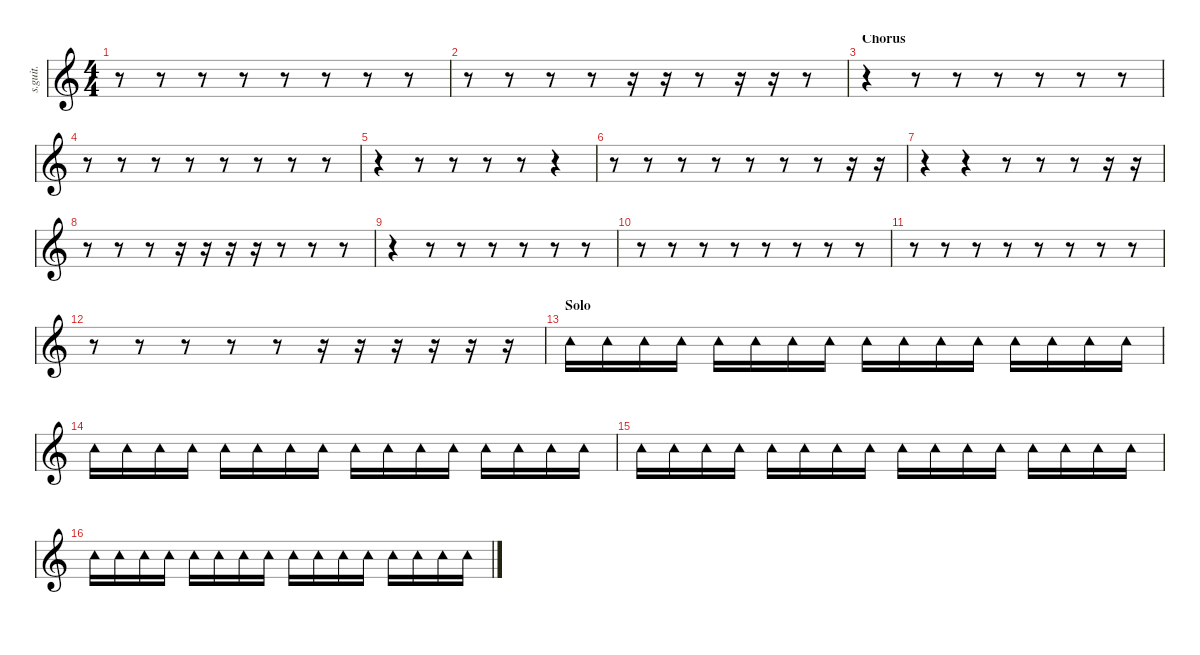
\defaultSystemsLayout 4
\hideDynamics
\bracketExtendMode nobrackets
\track ("Chad Channing - Tambourine" "s.guit.") {instrument percussion}
\staff {score}
\articulation defaults
\ts (4 4)
\tempo (126 hide)
\clef g2
\ks c
r.8{dy f} r.8 r.8 r.8 r.8 r.8 r.8 r.8 |
r.8 r.8 r.8 r.8 r.16 r.16 r.8 r.16 r.16 r.8 |
\section ("" "Chorus")
r.4 r.8 r.8 r.8 r.8 r.8 r.8 |
r.8 r.8 r.8 r.8 r.8 r.8 r.8 r.8 |
r.4 r.8 r.8 r.8 r.8 r.4 |
r.8 r.8 r.8 r.8 r.8 r.8 r.8 r.16 r.16 |
r.4 r.4 r.8 r.8 r.8 r.16 r.16 |
r.8 r.8 r.8 r.16 r.16 r.16 r.16 r.8 r.8 r.8 |
r.4 r.8 r.8 r.8 r.8 r.8 r.8 |
r.8 r.8 r.8 r.8 r.8 r.8 r.8 r.8 |
r.8 r.8 r.8 r.8 r.8 r.8 r.8 r.8 |
r.8 r.8 r.8 r.8 r.8 r.16 r.16 r.16 r.16 r.16 r.16 |
\section ("" "Solo")
\tempo (133 hide)
"Tambourine (hit)".16{lyrics (0 "") lyrics (1 "") lyrics (2 "") lyrics (3 "") lyrics (4 "")} "Tambourine (hit)".16{lyrics (0 "") lyrics (1 "") lyrics (2 "") lyrics (3 "") lyrics (4 "")} "Tambourine (hit)".16{lyrics (0 "") lyrics (1 "") lyrics (2 "") lyrics (3 "") lyrics (4 "")} "Tambourine (hit)".16{lyrics (0 "") lyrics (1 "") lyrics (2 "") lyrics (3 "") lyrics (4 "")} "Tambourine (hit)".16{lyrics (0 "") lyrics (1 "") lyrics (2 "") lyrics (3 "") lyrics (4 "")} "Tambourine (hit)".16{lyrics (0 "") lyrics (1 "") lyrics (2 "") lyrics (3 "") lyrics (4 "")} "Tambourine (hit)".16{lyrics (0 "") lyrics (1 "") lyrics (2 "") lyrics (3 "") lyrics (4 "")} "Tambourine (hit)".16{lyrics (0 "") lyrics (1 "") lyrics (2 "") lyrics (3 "") lyrics (4 "")} "Tambourine (hit)".16{lyrics (0 "") lyrics (1 "") lyrics (2 "") lyrics (3 "") lyrics (4 "")} "Tambourine (hit)".16{lyrics (0 "") lyrics (1 "") lyrics (2 "") lyrics (3 "") lyrics (4 "")} "Tambourine (hit)".16{lyrics (0 "") lyrics (1 "") lyrics (2 "") lyrics (3 "") lyrics (4 "")} "Tambourine (hit)".16{lyrics (0 "") lyrics (1 "") lyrics (2 "") lyrics (3 "") lyrics (4 "")} "Tambourine (hit)".16{lyrics (0 "") lyrics (1 "") lyrics (2 "") lyrics (3 "") lyrics (4 "")} "Tambourine (hit)".16{lyrics (0 "") lyrics (1 "") lyrics (2 "") lyrics (3 "") lyrics (4 "")} "Tambourine (hit)".16{lyrics (0 "") lyrics (1 "") lyrics (2 "") lyrics (3 "") lyrics (4 "")} "Tambourine (hit)".16{lyrics (0 "") lyrics (1 "") lyrics (2 "") lyrics (3 "") lyrics (4 "")} |
"Tambourine (hit)".16{lyrics (0 "") lyrics (1 "") lyrics (2 "") lyrics (3 "") lyrics (4 "")} "Tambourine (hit)".16{lyrics (0 "") lyrics (1 "") lyrics (2 "") lyrics (3 "") lyrics (4 "")} "Tambourine (hit)".16{lyrics (0 "") lyrics (1 "") lyrics (2 "") lyrics (3 "") lyrics (4 "")} "Tambourine (hit)".16{lyrics (0 "") lyrics (1 "") lyrics (2 "") lyrics (3 "") lyrics (4 "")} "Tambourine (hit)".16{lyrics (0 "") lyrics (1 "") lyrics (2 "") lyrics (3 "") lyrics (4 "")} "Tambourine (hit)".16{lyrics (0 "") lyrics (1 "") lyrics (2 "") lyrics (3 "") lyrics (4 "")} "Tambourine (hit)".16{lyrics (0 "") lyrics (1 "") lyrics (2 "") lyrics (3 "") lyrics (4 "")} "Tambourine (hit)".16{lyrics (0 "") lyrics (1 "") lyrics (2 "") lyrics (3 "") lyrics (4 "")} "Tambourine (hit)".16{lyrics (0 "") lyrics (1 "") lyrics (2 "") lyrics (3 "") lyrics (4 "")} "Tambourine (hit)".16{lyrics (0 "") lyrics (1 "") lyrics (2 "") lyrics (3 "") lyrics (4 "")} "Tambourine (hit)".16{lyrics (0 "") lyrics (1 "") lyrics (2 "") lyrics (3 "") lyrics (4 "")} "Tambourine (hit)".16{lyrics (0 "") lyrics (1 "") lyrics (2 "") lyrics (3 "") lyrics (4 "")} "Tambourine (hit)".16{lyrics (0 "") lyrics (1 "") lyrics (2 "") lyrics (3 "") lyrics (4 "")} "Tambourine (hit)".16{lyrics (0 "") lyrics (1 "") lyrics (2 "") lyrics (3 "") lyrics (4 "")} "Tambourine (hit)".16{lyrics (0 "") lyrics (1 "") lyrics (2 "") lyrics (3 "") lyrics (4 "")} "Tambourine (hit)".16{lyrics (0 "") lyrics (1 "") lyrics (2 "") lyrics (3 "") lyrics (4 "")} |
"Tambourine (hit)".16{lyrics (0 "") lyrics (1 "") lyrics (2 "") lyrics (3 "") lyrics (4 "")} "Tambourine (hit)".16{lyrics (0 "") lyrics (1 "") lyrics (2 "") lyrics (3 "") lyrics (4 "")} "Tambourine (hit)".16{lyrics (0 "") lyrics (1 "") lyrics (2 "") lyrics (3 "") lyrics (4 "")} "Tambourine (hit)".16{lyrics (0 "") lyrics (1 "") lyrics (2 "") lyrics (3 "") lyrics (4 "")} "Tambourine (hit)".16{lyrics (0 "") lyrics (1 "") lyrics (2 "") lyrics (3 "") lyrics (4 "")} "Tambourine (hit)".16{lyrics (0 "") lyrics (1 "") lyrics (2 "") lyrics (3 "") lyrics (4 "")} "Tambourine (hit)".16{lyrics (0 "") lyrics (1 "") lyrics (2 "") lyrics (3 "") lyrics (4 "")} "Tambourine (hit)".16{lyrics (0 "") lyrics (1 "") lyrics (2 "") lyrics (3 "") lyrics (4 "")} "Tambourine (hit)".16{lyrics (0 "") lyrics (1 "") lyrics (2 "") lyrics (3 "") lyrics (4 "")} "Tambourine (hit)".16{lyrics (0 "") lyrics (1 "") lyrics (2 "") lyrics (3 "") lyrics (4 "")} "Tambourine (hit)".16{lyrics (0 "") lyrics (1 "") lyrics (2 "") lyrics (3 "") lyrics (4 "")} "Tambourine (hit)".16{lyrics (0 "") lyrics (1 "") lyrics (2 "") lyrics (3 "") lyrics (4 "")} "Tambourine (hit)".16{lyrics (0 "") lyrics (1 "") lyrics (2 "") lyrics (3 "") lyrics (4 "")} "Tambourine (hit)".16{lyrics (0 "") lyrics (1 "") lyrics (2 "") lyrics (3 "") lyrics (4 "")} "Tambourine (hit)".16{lyrics (0 "") lyrics (1 "") lyrics (2 "") lyrics (3 "") lyrics (4 "")} "Tambourine (hit)".16{lyrics (0 "") lyrics (1 "") lyrics (2 "") lyrics (3 "") lyrics (4 "")} |
"Tambourine (hit)".16{lyrics (0 "") lyrics (1 "") lyrics (2 "") lyrics (3 "") lyrics (4 "")} "Tambourine (hit)".16{lyrics (0 "") lyrics (1 "") lyrics (2 "") lyrics (3 "") lyrics (4 "")} "Tambourine (hit)".16{lyrics (0 "") lyrics (1 "") lyrics (2 "") lyrics (3 "") lyrics (4 "")} "Tambourine (hit)".16{lyrics (0 "") lyrics (1 "") lyrics (2 "") lyrics (3 "") lyrics (4 "")} "Tambourine (hit)".16{lyrics (0 "") lyrics (1 "") lyrics (2 "") lyrics (3 "") lyrics (4 "")} "Tambourine (hit)".16{lyrics (0 "") lyrics (1 "") lyrics (2 "") lyrics (3 "") lyrics (4 "")} "Tambourine (hit)".16{lyrics (0 "") lyrics (1 "") lyrics (2 "") lyrics (3 "") lyrics (4 "")} "Tambourine (hit)".16{lyrics (0 "") lyrics (1 "") lyrics (2 "") lyrics (3 "") lyrics (4 "")} "Tambourine (hit)".16{lyrics (0 "") lyrics (1 "") lyrics (2 "") lyrics (3 "") lyrics (4 "")} "Tambourine (hit)".16{lyrics (0 "") lyrics (1 "") lyrics (2 "") lyrics (3 "") lyrics (4 "")} "Tambourine (hit)".16{lyrics (0 "") lyrics (1 "") lyrics (2 "") lyrics (3 "") lyrics (4 "")} "Tambourine (hit)".16{lyrics (0 "") lyrics (1 "") lyrics (2 "") lyrics (3 "") lyrics (4 "")} "Tambourine (hit)".16{lyrics (0 "") lyrics (1 "") lyrics (2 "") lyrics (3 "") lyrics (4 "")} "Tambourine (hit)".16{lyrics (0 "") lyrics (1 "") lyrics (2 "") lyrics (3 "") lyrics (4 "")} "Tambourine (hit)".16{lyrics (0 "") lyrics (1 "") lyrics (2 "") lyrics (3 "") lyrics (4 "")} "Tambourine (hit)".16{lyrics (0 "") lyrics (1 "") lyrics (2 "") lyrics (3 "") lyrics (4 "")}
